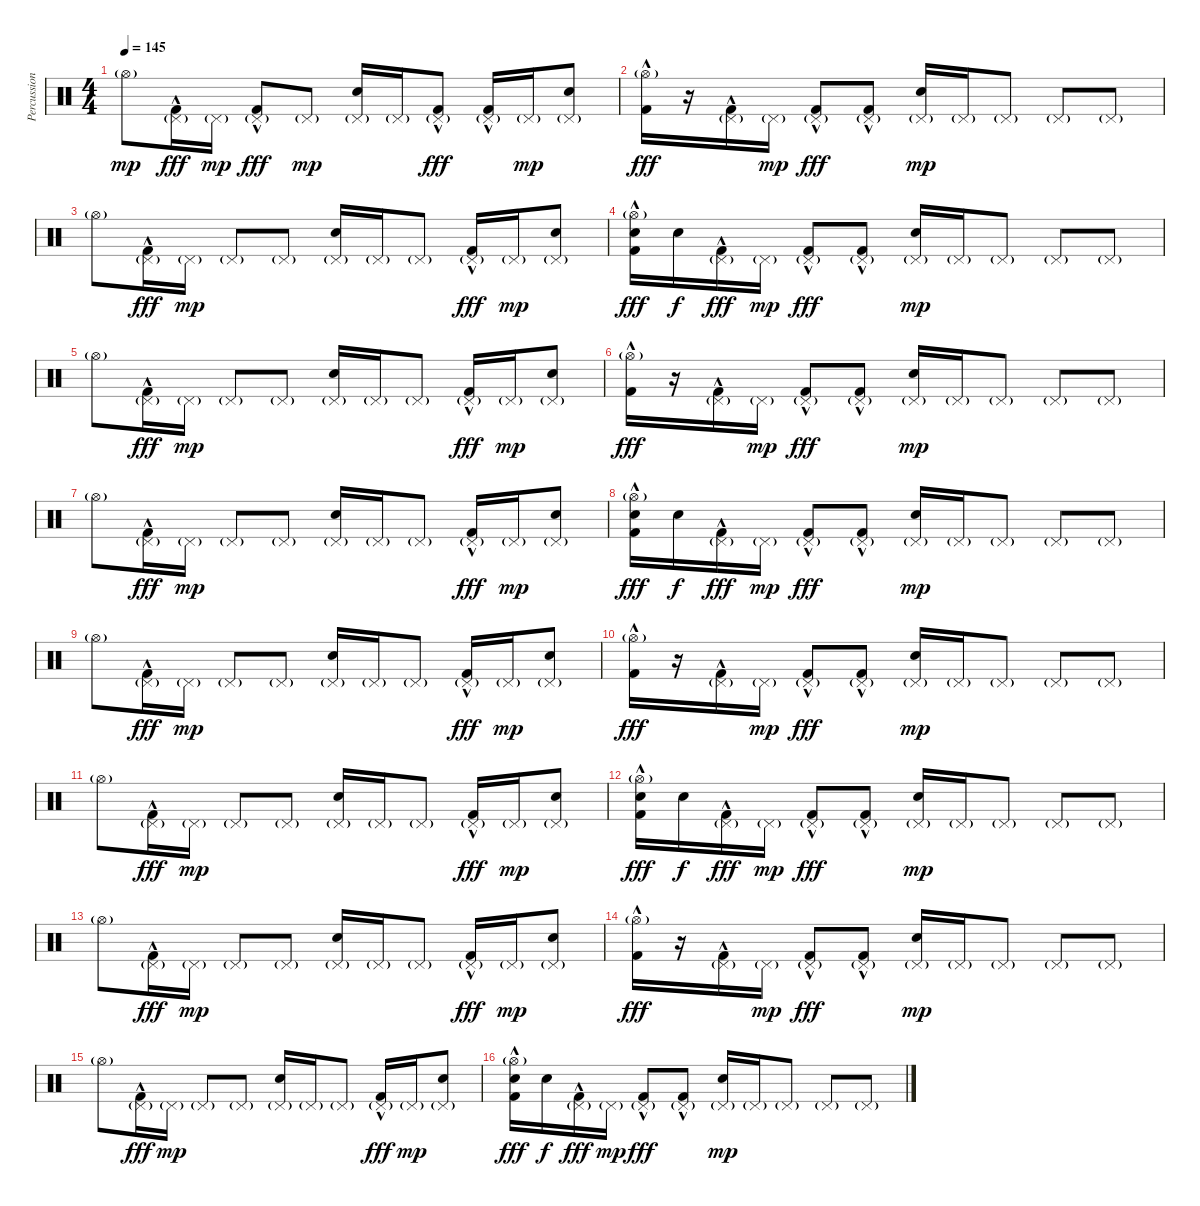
\track ("Percussion" "Percussion") {instrument percussion}
\staff {score}
\articulation defaults
\ts (4 4)
\tempo 145
\clef neutral
\ks c "Hi-Hat (open)"{g}.8{dy mp}
("Pedal Hi-Hat (hit)"{g} "Kick (hit) 2"{hac}).16{dy fff} "Pedal Hi-Hat (hit)"{g}.16{dy mp} ("Pedal Hi-Hat (hit)"{g} "Kick (hit) 2"{hac}).8{dy fff} "Pedal Hi-Hat (hit)"{g}.8{dy mp} ("Pedal Hi-Hat (hit)"{g} "Snare (hit) 2").16 "Pedal Hi-Hat (hit)"{g}.16 ("Pedal Hi-Hat (hit)"{g} "Kick (hit) 2"{hac}).8{dy fff} ("Pedal Hi-Hat (hit)"{g} "Kick (hit) 2"{hac}).16 "Pedal Hi-Hat (hit)"{g}.16{dy mp} ("Pedal Hi-Hat (hit)"{g} "Snare (hit) 2").8 |
("Hi-Hat (open)"{g} "Kick (hit) 2"{hac}).16{dy fff} r.16 ("Pedal Hi-Hat (hit)"{g} "Kick (hit) 2"{hac}).16 "Pedal Hi-Hat (hit)"{g}.16{dy mp} ("Pedal Hi-Hat (hit)"{g} "Kick (hit) 2"{hac}).8{dy fff} ("Pedal Hi-Hat (hit)"{g} "Kick (hit) 2"{hac}).8 ("Pedal Hi-Hat (hit)"{g} "Snare (hit) 2").16{dy mp} "Pedal Hi-Hat (hit)"{g}.16 "Pedal Hi-Hat (hit)"{g}.8 "Pedal Hi-Hat (hit)"{g}.8 "Pedal Hi-Hat (hit)"{g}.8 |
"Hi-Hat (open)"{g}.8 ("Pedal Hi-Hat (hit)"{g} "Kick (hit) 2"{hac}).16{dy fff} "Pedal Hi-Hat (hit)"{g}.16{dy mp} "Pedal Hi-Hat (hit)"{g}.8 "Pedal Hi-Hat (hit)"{g}.8 ("Pedal Hi-Hat (hit)"{g} "Snare (hit) 2").16 "Pedal Hi-Hat (hit)"{g}.16 "Pedal Hi-Hat (hit)"{g}.8 ("Pedal Hi-Hat (hit)"{g} "Kick (hit) 2"{hac}).16{dy fff} "Pedal Hi-Hat (hit)"{g}.16{dy mp} ("Pedal Hi-Hat (hit)"{g} "Snare (hit) 2").8 |
("Hi-Hat (open)"{g} "Snare (hit) 2" "Kick (hit) 2"{hac}).16{dy fff} "Snare (hit) 2".16{dy f} ("Pedal Hi-Hat (hit)"{g} "Kick (hit) 2"{hac}).16{dy fff} "Pedal Hi-Hat (hit)"{g}.16{dy mp} ("Pedal Hi-Hat (hit)"{g} "Kick (hit) 2"{hac}).8{dy fff} ("Pedal Hi-Hat (hit)"{g} "Kick (hit) 2"{hac}).8 ("Pedal Hi-Hat (hit)"{g} "Snare (hit) 2").16{dy mp} "Pedal Hi-Hat (hit)"{g}.16 "Pedal Hi-Hat (hit)"{g}.8 "Pedal Hi-Hat (hit)"{g}.8 "Pedal Hi-Hat (hit)"{g}.8 |
"Hi-Hat (open)"{g}.8 ("Pedal Hi-Hat (hit)"{g} "Kick (hit) 2"{hac}).16{dy fff} "Pedal Hi-Hat (hit)"{g}.16{dy mp} "Pedal Hi-Hat (hit)"{g}.8 "Pedal Hi-Hat (hit)"{g}.8 ("Pedal Hi-Hat (hit)"{g} "Snare (hit) 2").16 "Pedal Hi-Hat (hit)"{g}.16 "Pedal Hi-Hat (hit)"{g}.8 ("Pedal Hi-Hat (hit)"{g} "Kick (hit) 2"{hac}).16{dy fff} "Pedal Hi-Hat (hit)"{g}.16{dy mp} ("Pedal Hi-Hat (hit)"{g} "Snare (hit) 2").8 |
("Hi-Hat (open)"{g} "Kick (hit) 2"{hac}).16{dy fff} r.16 ("Pedal Hi-Hat (hit)"{g} "Kick (hit) 2"{hac}).16 "Pedal Hi-Hat (hit)"{g}.16{dy mp} ("Pedal Hi-Hat (hit)"{g} "Kick (hit) 2"{hac}).8{dy fff} ("Pedal Hi-Hat (hit)"{g} "Kick (hit) 2"{hac}).8 ("Pedal Hi-Hat (hit)"{g} "Snare (hit) 2").16{dy mp} "Pedal Hi-Hat (hit)"{g}.16 "Pedal Hi-Hat (hit)"{g}.8 "Pedal Hi-Hat (hit)"{g}.8 "Pedal Hi-Hat (hit)"{g}.8 |
"Hi-Hat (open)"{g}.8 ("Pedal Hi-Hat (hit)"{g} "Kick (hit) 2"{hac}).16{dy fff} "Pedal Hi-Hat (hit)"{g}.16{dy mp} "Pedal Hi-Hat (hit)"{g}.8 "Pedal Hi-Hat (hit)"{g}.8 ("Pedal Hi-Hat (hit)"{g} "Snare (hit) 2").16 "Pedal Hi-Hat (hit)"{g}.16 "Pedal Hi-Hat (hit)"{g}.8 ("Pedal Hi-Hat (hit)"{g} "Kick (hit) 2"{hac}).16{dy fff} "Pedal Hi-Hat (hit)"{g}.16{dy mp} ("Pedal Hi-Hat (hit)"{g} "Snare (hit) 2").8 |
("Hi-Hat (open)"{g} "Snare (hit) 2" "Kick (hit) 2"{hac}).16{dy fff} "Snare (hit) 2".16{dy f} ("Pedal Hi-Hat (hit)"{g} "Kick (hit) 2"{hac}).16{dy fff} "Pedal Hi-Hat (hit)"{g}.16{dy mp} ("Pedal Hi-Hat (hit)"{g} "Kick (hit) 2"{hac}).8{dy fff} ("Pedal Hi-Hat (hit)"{g} "Kick (hit) 2"{hac}).8 ("Pedal Hi-Hat (hit)"{g} "Snare (hit) 2").16{dy mp} "Pedal Hi-Hat (hit)"{g}.16 "Pedal Hi-Hat (hit)"{g}.8 "Pedal Hi-Hat (hit)"{g}.8 "Pedal Hi-Hat (hit)"{g}.8 |
"Hi-Hat (open)"{g}.8 ("Pedal Hi-Hat (hit)"{g} "Kick (hit) 2"{hac}).16{dy fff} "Pedal Hi-Hat (hit)"{g}.16{dy mp} "Pedal Hi-Hat (hit)"{g}.8 "Pedal Hi-Hat (hit)"{g}.8 ("Pedal Hi-Hat (hit)"{g} "Snare (hit) 2").16 "Pedal Hi-Hat (hit)"{g}.16 "Pedal Hi-Hat (hit)"{g}.8 ("Pedal Hi-Hat (hit)"{g} "Kick (hit) 2"{hac}).16{dy fff} "Pedal Hi-Hat (hit)"{g}.16{dy mp} ("Pedal Hi-Hat (hit)"{g} "Snare (hit) 2").8 |
("Hi-Hat (open)"{g} "Kick (hit) 2"{hac}).16{dy fff} r.16 ("Pedal Hi-Hat (hit)"{g} "Kick (hit) 2"{hac}).16 "Pedal Hi-Hat (hit)"{g}.16{dy mp} ("Pedal Hi-Hat (hit)"{g} "Kick (hit) 2"{hac}).8{dy fff} ("Pedal Hi-Hat (hit)"{g} "Kick (hit) 2"{hac}).8 ("Pedal Hi-Hat (hit)"{g} "Snare (hit) 2").16{dy mp} "Pedal Hi-Hat (hit)"{g}.16 "Pedal Hi-Hat (hit)"{g}.8 "Pedal Hi-Hat (hit)"{g}.8 "Pedal Hi-Hat (hit)"{g}.8 |
"Hi-Hat (open)"{g}.8 ("Pedal Hi-Hat (hit)"{g} "Kick (hit) 2"{hac}).16{dy fff} "Pedal Hi-Hat (hit)"{g}.16{dy mp} "Pedal Hi-Hat (hit)"{g}.8 "Pedal Hi-Hat (hit)"{g}.8 ("Pedal Hi-Hat (hit)"{g} "Snare (hit) 2").16 "Pedal Hi-Hat (hit)"{g}.16 "Pedal Hi-Hat (hit)"{g}.8 ("Pedal Hi-Hat (hit)"{g} "Kick (hit) 2"{hac}).16{dy fff} "Pedal Hi-Hat (hit)"{g}.16{dy mp} ("Pedal Hi-Hat (hit)"{g} "Snare (hit) 2").8 |
("Hi-Hat (open)"{g} "Snare (hit) 2" "Kick (hit) 2"{hac}).16{dy fff} "Snare (hit) 2".16{dy f} ("Pedal Hi-Hat (hit)"{g} "Kick (hit) 2"{hac}).16{dy fff} "Pedal Hi-Hat (hit)"{g}.16{dy mp} ("Pedal Hi-Hat (hit)"{g} "Kick (hit) 2"{hac}).8{dy fff} ("Pedal Hi-Hat (hit)"{g} "Kick (hit) 2"{hac}).8 ("Pedal Hi-Hat (hit)"{g} "Snare (hit) 2").16{dy mp} "Pedal Hi-Hat (hit)"{g}.16 "Pedal Hi-Hat (hit)"{g}.8 "Pedal Hi-Hat (hit)"{g}.8 "Pedal Hi-Hat (hit)"{g}.8 |
"Hi-Hat (open)"{g}.8 ("Pedal Hi-Hat (hit)"{g} "Kick (hit) 2"{hac}).16{dy fff} "Pedal Hi-Hat (hit)"{g}.16{dy mp} "Pedal Hi-Hat (hit)"{g}.8 "Pedal Hi-Hat (hit)"{g}.8 ("Pedal Hi-Hat (hit)"{g} "Snare (hit) 2").16 "Pedal Hi-Hat (hit)"{g}.16 "Pedal Hi-Hat (hit)"{g}.8 ("Pedal Hi-Hat (hit)"{g} "Kick (hit) 2"{hac}).16{dy fff} "Pedal Hi-Hat (hit)"{g}.16{dy mp} ("Pedal Hi-Hat (hit)"{g} "Snare (hit) 2").8 |
("Hi-Hat (open)"{g} "Kick (hit) 2"{hac}).16{dy fff} r.16 ("Pedal Hi-Hat (hit)"{g} "Kick (hit) 2"{hac}).16 "Pedal Hi-Hat (hit)"{g}.16{dy mp} ("Pedal Hi-Hat (hit)"{g} "Kick (hit) 2"{hac}).8{dy fff} ("Pedal Hi-Hat (hit)"{g} "Kick (hit) 2"{hac}).8 ("Pedal Hi-Hat (hit)"{g} "Snare (hit) 2").16{dy mp} "Pedal Hi-Hat (hit)"{g}.16 "Pedal Hi-Hat (hit)"{g}.8 "Pedal Hi-Hat (hit)"{g}.8 "Pedal Hi-Hat (hit)"{g}.8 |
"Hi-Hat (open)"{g}.8 ("Pedal Hi-Hat (hit)"{g} "Kick (hit) 2"{hac}).16{dy fff} "Pedal Hi-Hat (hit)"{g}.16{dy mp} "Pedal Hi-Hat (hit)"{g}.8 "Pedal Hi-Hat (hit)"{g}.8 ("Pedal Hi-Hat (hit)"{g} "Snare (hit) 2").16 "Pedal Hi-Hat (hit)"{g}.16 "Pedal Hi-Hat (hit)"{g}.8 ("Pedal Hi-Hat (hit)"{g} "Kick (hit) 2"{hac}).16{dy fff} "Pedal Hi-Hat (hit)"{g}.16{dy mp} ("Pedal Hi-Hat (hit)"{g} "Snare (hit) 2").8 |
("Hi-Hat (open)"{g} "Snare (hit) 2" "Kick (hit) 2"{hac}).16{dy fff} "Snare (hit) 2".16{dy f} ("Pedal Hi-Hat (hit)"{g} "Kick (hit) 2"{hac}).16{dy fff} "Pedal Hi-Hat (hit)"{g}.16{dy mp} ("Pedal Hi-Hat (hit)"{g} "Kick (hit) 2"{hac}).8{dy fff} ("Pedal Hi-Hat (hit)"{g} "Kick (hit) 2"{hac}).8 ("Pedal Hi-Hat (hit)"{g} "Snare (hit) 2").16{dy mp} "Pedal Hi-Hat (hit)"{g}.16 "Pedal Hi-Hat (hit)"{g}.8 "Pedal Hi-Hat (hit)"{g}.8 "Pedal Hi-Hat (hit)"{g}.8
